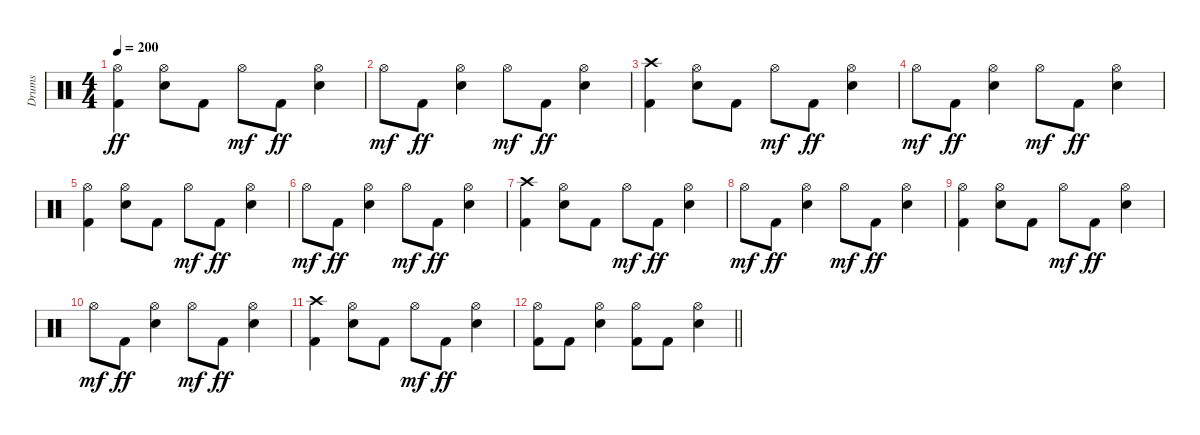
\track ("Drums" "Drums") {instrument percussion}
\staff {score}
\articulation defaults
\ts (4 4)
\tempo 200
\clef neutral
\ks c
("Hi-Hat (open)" "Kick (hit) 2").4{dy ff} ("Hi-Hat (open)" "Electric Snare (hit)").8 "Kick (hit) 2".8 "Hi-Hat (open)".8{dy mf} "Kick (hit) 2".8{dy ff} ("Hi-Hat (open)" "Electric Snare (hit)").4 |
"Hi-Hat (open)".8{dy mf} "Kick (hit) 2".8{dy ff} ("Hi-Hat (open)" "Electric Snare (hit)").4 "Hi-Hat (open)".8{dy mf} "Kick (hit) 2".8{dy ff} ("Hi-Hat (open)" "Electric Snare (hit)").4 |
("Crash high (hit)" "Kick (hit) 2").4 ("Hi-Hat (open)" "Electric Snare (hit)").8 "Kick (hit) 2".8 "Hi-Hat (open)".8{dy mf} "Kick (hit) 2".8{dy ff} ("Hi-Hat (open)" "Electric Snare (hit)").4 |
"Hi-Hat (open)".8{dy mf} "Kick (hit) 2".8{dy ff} ("Hi-Hat (open)" "Electric Snare (hit)").4 "Hi-Hat (open)".8{dy mf} "Kick (hit) 2".8{dy ff} ("Hi-Hat (open)" "Electric Snare (hit)").4 |
("Hi-Hat (open)" "Kick (hit) 2").4 ("Hi-Hat (open)" "Electric Snare (hit)").8 "Kick (hit) 2".8 "Hi-Hat (open)".8{dy mf} "Kick (hit) 2".8{dy ff} ("Hi-Hat (open)" "Electric Snare (hit)").4 |
"Hi-Hat (open)".8{dy mf} "Kick (hit) 2".8{dy ff} ("Hi-Hat (open)" "Electric Snare (hit)").4 "Hi-Hat (open)".8{dy mf} "Kick (hit) 2".8{dy ff} ("Hi-Hat (open)" "Electric Snare (hit)").4 |
("Crash high (hit)" "Kick (hit) 2").4 ("Hi-Hat (open)" "Electric Snare (hit)").8 "Kick (hit) 2".8 "Hi-Hat (open)".8{dy mf} "Kick (hit) 2".8{dy ff} ("Hi-Hat (open)" "Electric Snare (hit)").4 |
"Hi-Hat (open)".8{dy mf} "Kick (hit) 2".8{dy ff} ("Hi-Hat (open)" "Electric Snare (hit)").4 "Hi-Hat (open)".8{dy mf} "Kick (hit) 2".8{dy ff} ("Hi-Hat (open)" "Electric Snare (hit)").4 |
("Hi-Hat (open)" "Kick (hit) 2").4 ("Hi-Hat (open)" "Electric Snare (hit)").8 "Kick (hit) 2".8 "Hi-Hat (open)".8{dy mf} "Kick (hit) 2".8{dy ff} ("Hi-Hat (open)" "Electric Snare (hit)").4 |
"Hi-Hat (open)".8{dy mf} "Kick (hit) 2".8{dy ff} ("Hi-Hat (open)" "Electric Snare (hit)").4 "Hi-Hat (open)".8{dy mf} "Kick (hit) 2".8{dy ff} ("Hi-Hat (open)" "Electric Snare (hit)").4 |
("Crash high (hit)" "Kick (hit) 2").4 ("Hi-Hat (open)" "Electric Snare (hit)").8 "Kick (hit) 2".8 "Hi-Hat (open)".8{dy mf} "Kick (hit) 2".8{dy ff} ("Hi-Hat (open)" "Electric Snare (hit)").4 |
\barLineRight lightlight
("Hi-Hat (open)" "Kick (hit) 2").8 "Kick (hit) 2".8 ("Hi-Hat (open)" "Electric Snare (hit)").4 ("Hi-Hat (open)" "Kick (hit) 2").8 "Kick (hit) 2".8 ("Hi-Hat (open)" "Electric Snare (hit)").4
